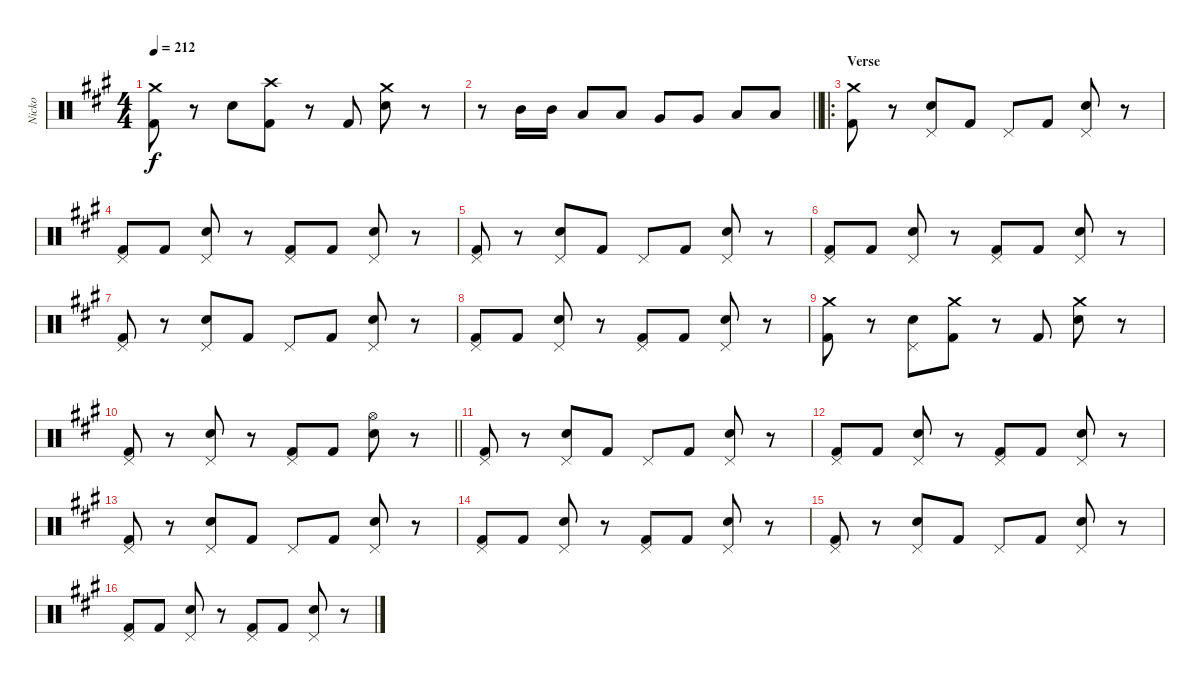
\track ("Nicko" "Nicko") {instrument percussion}
\staff {score}
\articulation defaults
\ts (4 4)
\tempo 212
\clef neutral
\ks a
("Crash medium (hit)" "Kick (hit) 2").8{dy f} r.8 "Snare (hit) 2".8 ("Crash high (hit)" "Kick (hit) 2").8 r.8 "Kick (hit) 2".8 ("Crash medium (hit)" "Snare (hit) 2").8 r.8 |
\barLineRight lightlight
r.8 "Mid Tom (hit)".16 "Mid Tom (hit)".16 "Low Tom (hit)".8 "Low Tom (hit)".8 "Very Low Tom (hit)".8 "Very Low Tom (hit)".8 "Low Floor Tom (hit)".8 "Low Floor Tom (hit)".8 |
\ro
\section ("" "Verse")
("Crash medium (hit)" "Kick (hit) 2").8 r.8 ("Pedal Hi-Hat (hit)" "Snare (hit) 2").8 "Kick (hit) 2".8 "Pedal Hi-Hat (hit)".8 "Kick (hit) 2".8 ("Pedal Hi-Hat (hit)" "Snare (hit) 2").8 r.8 |
("Pedal Hi-Hat (hit)" "Kick (hit) 2").8 "Kick (hit) 2".8 ("Pedal Hi-Hat (hit)" "Snare (hit) 2").8 r.8 ("Pedal Hi-Hat (hit)" "Kick (hit) 2").8 "Kick (hit) 2".8 ("Pedal Hi-Hat (hit)" "Snare (hit) 2").8 r.8 |
("Pedal Hi-Hat (hit)" "Kick (hit) 2").8 r.8 ("Pedal Hi-Hat (hit)" "Snare (hit) 2").8 "Kick (hit) 2".8 "Pedal Hi-Hat (hit)".8 "Kick (hit) 2".8 ("Pedal Hi-Hat (hit)" "Snare (hit) 2").8 r.8 |
("Pedal Hi-Hat (hit)" "Kick (hit) 2").8 "Kick (hit) 2".8 ("Pedal Hi-Hat (hit)" "Snare (hit) 2").8 r.8 ("Pedal Hi-Hat (hit)" "Kick (hit) 2").8 "Kick (hit) 2".8 ("Pedal Hi-Hat (hit)" "Snare (hit) 2").8 r.8 |
("Pedal Hi-Hat (hit)" "Kick (hit) 2").8 r.8 ("Pedal Hi-Hat (hit)" "Snare (hit) 2").8 "Kick (hit) 2".8 "Pedal Hi-Hat (hit)".8 "Kick (hit) 2".8 ("Pedal Hi-Hat (hit)" "Snare (hit) 2").8 r.8 |
("Pedal Hi-Hat (hit)" "Kick (hit) 2").8 "Kick (hit) 2".8 ("Pedal Hi-Hat (hit)" "Snare (hit) 2").8 r.8 ("Pedal Hi-Hat (hit)" "Kick (hit) 2").8 "Kick (hit) 2".8 ("Pedal Hi-Hat (hit)" "Snare (hit) 2").8 r.8 |
("Crash medium (hit)" "Kick (hit) 2").8 r.8 ("Pedal Hi-Hat (hit)" "Snare (hit) 2").8 ("Crash medium (hit)" "Kick (hit) 2").8 r.8 "Kick (hit) 2".8 ("Crash medium (hit)" "Snare (hit) 2").8 r.8 |
\barLineRight lightlight
("Pedal Hi-Hat (hit)" "Kick (hit) 2").8 r.8 ("Pedal Hi-Hat (hit)" "Snare (hit) 2").8 r.8 ("Pedal Hi-Hat (hit)" "Kick (hit) 2").8 "Kick (hit) 2".8 ("Hi-Hat (open)" "Snare (hit) 2").8 r.8 |
("Pedal Hi-Hat (hit)" "Kick (hit) 2").8 r.8 ("Pedal Hi-Hat (hit)" "Snare (hit) 2").8 "Kick (hit) 2".8 "Pedal Hi-Hat (hit)".8 "Kick (hit) 2".8 ("Pedal Hi-Hat (hit)" "Snare (hit) 2").8 r.8 |
("Pedal Hi-Hat (hit)" "Kick (hit) 2").8 "Kick (hit) 2".8 ("Pedal Hi-Hat (hit)" "Snare (hit) 2").8 r.8 ("Pedal Hi-Hat (hit)" "Kick (hit) 2").8 "Kick (hit) 2".8 ("Pedal Hi-Hat (hit)" "Snare (hit) 2").8 r.8 |
("Pedal Hi-Hat (hit)" "Kick (hit) 2").8 r.8 ("Pedal Hi-Hat (hit)" "Snare (hit) 2").8 "Kick (hit) 2".8 "Pedal Hi-Hat (hit)".8 "Kick (hit) 2".8 ("Pedal Hi-Hat (hit)" "Snare (hit) 2").8 r.8 |
("Pedal Hi-Hat (hit)" "Kick (hit) 2").8 "Kick (hit) 2".8 ("Pedal Hi-Hat (hit)" "Snare (hit) 2").8 r.8 ("Pedal Hi-Hat (hit)" "Kick (hit) 2").8 "Kick (hit) 2".8 ("Pedal Hi-Hat (hit)" "Snare (hit) 2").8 r.8 |
("Pedal Hi-Hat (hit)" "Kick (hit) 2").8 r.8 ("Pedal Hi-Hat (hit)" "Snare (hit) 2").8 "Kick (hit) 2".8 "Pedal Hi-Hat (hit)".8 "Kick (hit) 2".8 ("Pedal Hi-Hat (hit)" "Snare (hit) 2").8 r.8 |
("Pedal Hi-Hat (hit)" "Kick (hit) 2").8 "Kick (hit) 2".8 ("Pedal Hi-Hat (hit)" "Snare (hit) 2").8 r.8 ("Pedal Hi-Hat (hit)" "Kick (hit) 2").8 "Kick (hit) 2".8 ("Pedal Hi-Hat (hit)" "Snare (hit) 2").8 r.8
